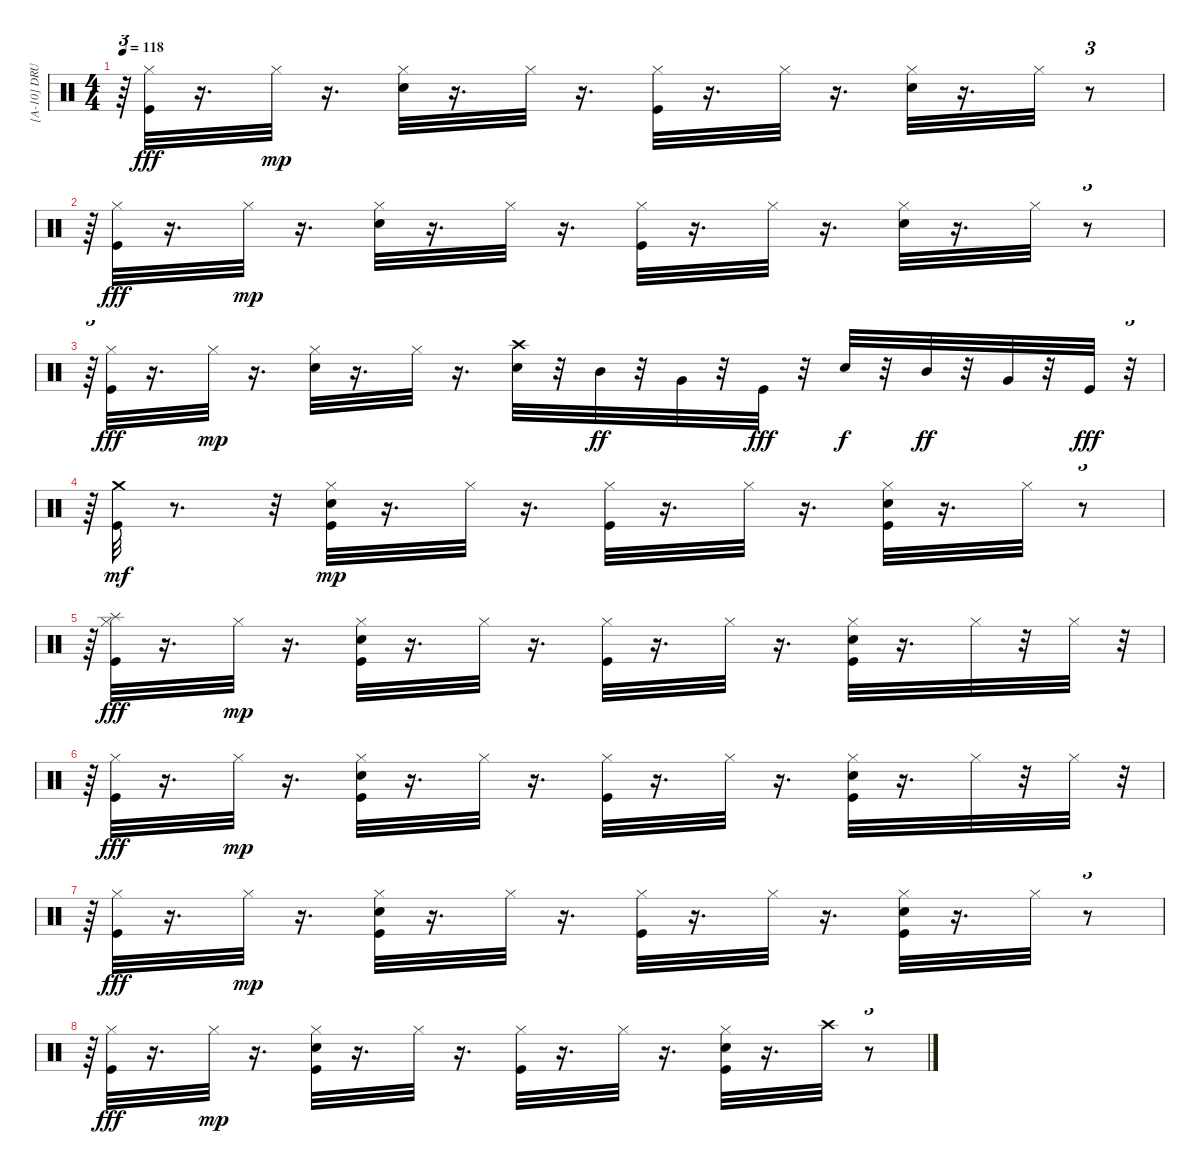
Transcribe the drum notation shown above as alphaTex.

\track ("[A-10] DRUM" "[A-10] DRU") {instrument percussion}
\staff {score}
\articulation defaults
\ts (4 4)
\tempo 118
\clef neutral
\ks c
r.64{tu (3 2) dy mp} ("Hi-Hat (closed)" "Kick (hit)").32{dy fff} r.16{d} "Hi-Hat (closed)".32{dy mp} r.16{d} ("Snare (hit) 2" "Hi-Hat (closed)").32 r.16{d} "Hi-Hat (closed)".32 r.16{d} ("Kick (hit)" "Hi-Hat (closed)").32 r.16{d} "Hi-Hat (closed)".32 r.16{d} ("Snare (hit) 2" "Hi-Hat (closed)").32 r.16{d} "Hi-Hat (closed)".32 r.8{tu (3 2)} |
r.64{tu (3 2)} ("Hi-Hat (closed)" "Kick (hit)").32{dy fff} r.16{d} "Hi-Hat (closed)".32{dy mp} r.16{d} ("Snare (hit) 2" "Hi-Hat (closed)").32 r.16{d} "Hi-Hat (closed)".32 r.16{d} ("Kick (hit)" "Hi-Hat (closed)").32 r.16{d} "Hi-Hat (closed)".32 r.16{d} ("Snare (hit) 2" "Hi-Hat (closed)").32 r.16{d} "Hi-Hat (closed)".32 r.8{tu (3 2)} |
r.64{tu (3 2)} ("Hi-Hat (closed)" "Kick (hit)").32{dy fff} r.16{d} "Hi-Hat (closed)".32{dy mp} r.16{d} ("Snare (hit) 2" "Hi-Hat (closed)").32 r.16{d} "Hi-Hat (closed)".32 r.16{d} ("Snare (hit) 2" "Crash high (hit)").32 r.32 "Mid Tom (hit)".32{dy ff} r.32 "Very Low Tom (hit)".32 r.32 "Kick (hit)".32{dy fff} r.32 "Snare (hit) 2".32{dy f} r.32 "Mid Tom (hit)".32{dy ff} r.32 "Very Low Tom (hit)".32 r.32 "Kick (hit)".32{dy fff} r.32{tu (3 2)} |
r.64{tu (3 2)} ("Kick (hit)" "Crash medium (hit)").32{dy mf} r.8{d} r.32 ("Kick (hit)" "Hi-Hat (closed)" "Snare (hit) 2").32{dy mp} r.16{d} "Hi-Hat (closed)".32 r.16{d} ("Kick (hit)" "Hi-Hat (closed)").32 r.16{d} "Hi-Hat (closed)".32 r.16{d} ("Kick (hit)" "Hi-Hat (closed)" "Snare (hit) 2").32 r.16{d} "Hi-Hat (closed)".32 r.8{tu (3 2)} |
r.64{tu (3 2)} ("Hi-Hat (closed)" "Splash (hit)" "Kick (hit)").32{dy fff} r.16{d} "Hi-Hat (closed)".32{dy mp} r.16{d} ("Kick (hit)" "Hi-Hat (closed)" "Snare (hit) 2").32 r.16{d} "Hi-Hat (closed)".32 r.16{d} ("Kick (hit)" "Hi-Hat (closed)").32 r.16{d} "Hi-Hat (closed)".32 r.16{d} ("Kick (hit)" "Hi-Hat (closed)" "Snare (hit) 2").32 r.16{d} "Hi-Hat (closed)".32 r.32 "Hi-Hat (closed)".32 r.32{tu (3 2)} |
r.64{tu (3 2)} ("Hi-Hat (closed)" "Kick (hit)").32{dy fff} r.16{d} "Hi-Hat (closed)".32{dy mp} r.16{d} ("Kick (hit)" "Hi-Hat (closed)" "Snare (hit) 2").32 r.16{d} "Hi-Hat (closed)".32 r.16{d} ("Kick (hit)" "Hi-Hat (closed)").32 r.16{d} "Hi-Hat (closed)".32 r.16{d} ("Kick (hit)" "Hi-Hat (closed)" "Snare (hit) 2").32 r.16{d} "Hi-Hat (closed)".32 r.32 "Hi-Hat (closed)".32 r.32{tu (3 2)} |
r.64{tu (3 2)} ("Hi-Hat (closed)" "Kick (hit)").32{dy fff} r.16{d} "Hi-Hat (closed)".32{dy mp} r.16{d} ("Kick (hit)" "Hi-Hat (closed)" "Snare (hit) 2").32 r.16{d} "Hi-Hat (closed)".32 r.16{d} ("Kick (hit)" "Hi-Hat (closed)").32 r.16{d} "Hi-Hat (closed)".32 r.16{d} ("Kick (hit)" "Hi-Hat (closed)" "Snare (hit) 2").32 r.16{d} "Hi-Hat (closed)".32 r.8{tu (3 2)} |
r.64{tu (3 2)} ("Hi-Hat (closed)" "Kick (hit)").32{dy fff} r.16{d} "Hi-Hat (closed)".32{dy mp} r.16{d} ("Kick (hit)" "Hi-Hat (closed)" "Snare (hit) 2").32 r.16{d} "Hi-Hat (closed)".32 r.16{d} ("Kick (hit)" "Hi-Hat (closed)").32 r.16{d} "Hi-Hat (closed)".32 r.16{d} ("Kick (hit)" "Hi-Hat (closed)" "Snare (hit) 2").32 r.16{d} "Crash high (hit)".32 r.8{tu (3 2)}
